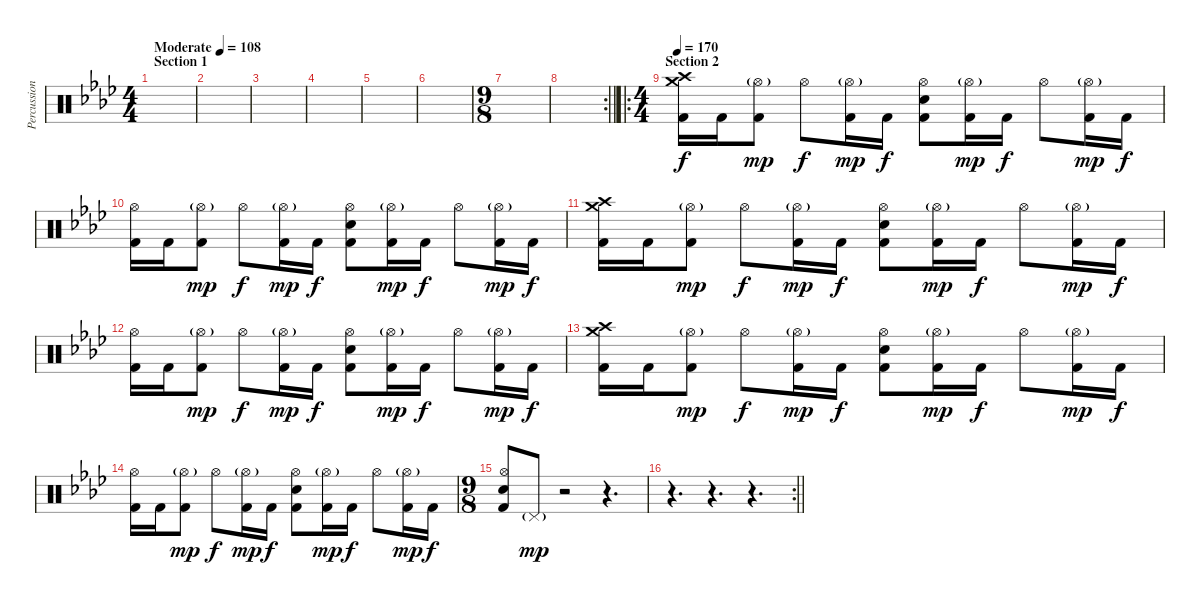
\track ("Percussion" "Percussion") {instrument percussion}
\staff {score}
\articulation defaults
\ts (4 4)
\section ("" "Section 1")
\tempo (108 "Moderate")
\clef neutral
\ks fminor
|
|
|
|
|
|
\ts (9 8)
|
\rc 2
\barLineRight lightlight
|
\ro
\ts (4 4)
\section ("" "Section 2")
\tempo 170
("Crash high (hit)" "Crash medium (hit)" "Kick (hit) 2").16 "Kick (hit) 2".16 ("Hi-Hat (open)"{g} "Kick (hit) 2").8{dy mp} "Hi-Hat (open)".8{dy f} ("Hi-Hat (open)"{g} "Kick (hit) 2").16{dy mp} "Kick (hit) 2".16{dy f} ("Hi-Hat (open)" "Electric Snare (hit)" "Kick (hit) 2").8 ("Hi-Hat (open)"{g} "Kick (hit) 2").16{dy mp} "Kick (hit) 2".16{dy f} "Hi-Hat (open)".8 ("Hi-Hat (open)"{g} "Kick (hit) 2").16{dy mp} "Kick (hit) 2".16{dy f} |
("Hi-Hat (open)" "Kick (hit) 2").16 "Kick (hit) 2".16 ("Hi-Hat (open)"{g} "Kick (hit) 2").8{dy mp} "Hi-Hat (open)".8{dy f} ("Hi-Hat (open)"{g} "Kick (hit) 2").16{dy mp} "Kick (hit) 2".16{dy f} ("Hi-Hat (open)" "Electric Snare (hit)" "Kick (hit) 2").8 ("Hi-Hat (open)"{g} "Kick (hit) 2").16{dy mp} "Kick (hit) 2".16{dy f} "Hi-Hat (open)".8 ("Hi-Hat (open)"{g} "Kick (hit) 2").16{dy mp} "Kick (hit) 2".16{dy f} |
("Crash high (hit)" "Crash medium (hit)" "Kick (hit) 2").16 "Kick (hit) 2".16 ("Hi-Hat (open)"{g} "Kick (hit) 2").8{dy mp} "Hi-Hat (open)".8{dy f} ("Hi-Hat (open)"{g} "Kick (hit) 2").16{dy mp} "Kick (hit) 2".16{dy f} ("Hi-Hat (open)" "Electric Snare (hit)" "Kick (hit) 2").8 ("Hi-Hat (open)"{g} "Kick (hit) 2").16{dy mp} "Kick (hit) 2".16{dy f} "Hi-Hat (open)".8 ("Hi-Hat (open)"{g} "Kick (hit) 2").16{dy mp} "Kick (hit) 2".16{dy f} |
("Hi-Hat (open)" "Kick (hit) 2").16 "Kick (hit) 2".16 ("Hi-Hat (open)"{g} "Kick (hit) 2").8{dy mp} "Hi-Hat (open)".8{dy f} ("Hi-Hat (open)"{g} "Kick (hit) 2").16{dy mp} "Kick (hit) 2".16{dy f} ("Hi-Hat (open)" "Electric Snare (hit)" "Kick (hit) 2").8 ("Hi-Hat (open)"{g} "Kick (hit) 2").16{dy mp} "Kick (hit) 2".16{dy f} "Hi-Hat (open)".8 ("Hi-Hat (open)"{g} "Kick (hit) 2").16{dy mp} "Kick (hit) 2".16{dy f} |
("Crash high (hit)" "Crash medium (hit)" "Kick (hit) 2").16 "Kick (hit) 2".16 ("Hi-Hat (open)"{g} "Kick (hit) 2").8{dy mp} "Hi-Hat (open)".8{dy f} ("Hi-Hat (open)"{g} "Kick (hit) 2").16{dy mp} "Kick (hit) 2".16{dy f} ("Hi-Hat (open)" "Electric Snare (hit)" "Kick (hit) 2").8 ("Hi-Hat (open)"{g} "Kick (hit) 2").16{dy mp} "Kick (hit) 2".16{dy f} "Hi-Hat (open)".8 ("Hi-Hat (open)"{g} "Kick (hit) 2").16{dy mp} "Kick (hit) 2".16{dy f} |
("Hi-Hat (open)" "Kick (hit) 2").16 "Kick (hit) 2".16 ("Hi-Hat (open)"{g} "Kick (hit) 2").8{dy mp} "Hi-Hat (open)".8{dy f} ("Hi-Hat (open)"{g} "Kick (hit) 2").16{dy mp} "Kick (hit) 2".16{dy f} ("Hi-Hat (open)" "Electric Snare (hit)" "Kick (hit) 2").8 ("Hi-Hat (open)"{g} "Kick (hit) 2").16{dy mp} "Kick (hit) 2".16{dy f} "Hi-Hat (open)".8 ("Hi-Hat (open)"{g} "Kick (hit) 2").16{dy mp} "Kick (hit) 2".16{dy f} |
\ts (9 8)
("Hi-Hat (open)" "Electric Snare (hit)" "Kick (hit) 2").8 "Pedal Hi-Hat (hit)"{g}.8{dy mp} r.2 r.4{d} |
\rc 2
\barLineRight lightlight
r.4{d} r.4{d} r.4{d}
